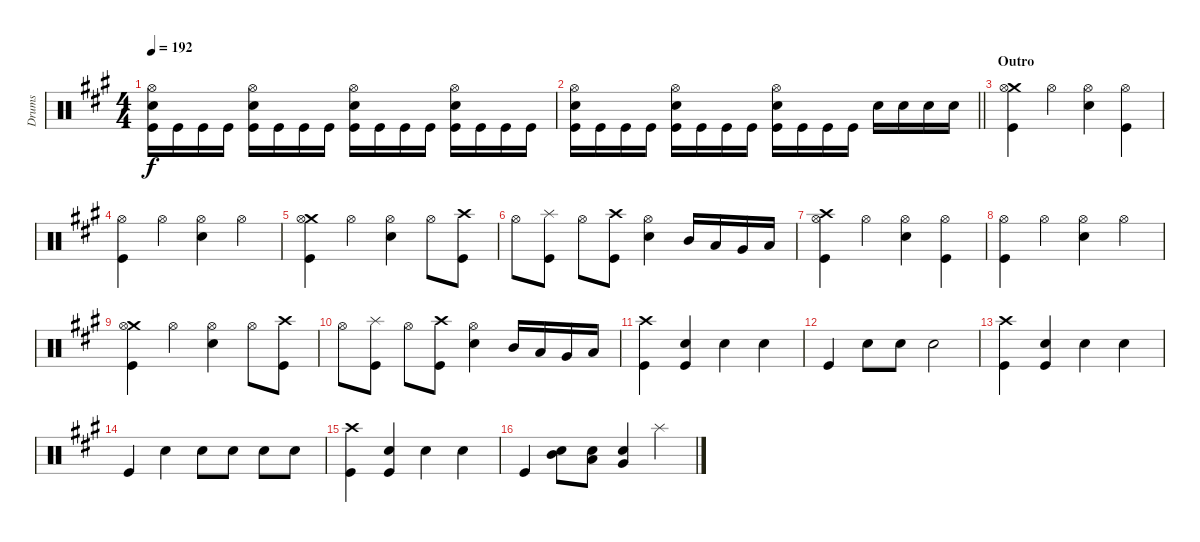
\track ("Drums" "Drums") {instrument percussion}
\staff {score}
\articulation defaults
\ts (4 4)
\tempo 192
\clef neutral
\ks f#minor
("Hi-Hat (open)" "Snare (hit) 2" "Kick (hit)").16{dy f} "Kick (hit)".16 "Kick (hit)".16 "Kick (hit)".16 ("Hi-Hat (open)" "Snare (hit) 2" "Kick (hit)").16 "Kick (hit)".16 "Kick (hit)".16 "Kick (hit)".16 ("Hi-Hat (open)" "Snare (hit) 2" "Kick (hit)").16 "Kick (hit)".16 "Kick (hit)".16 "Kick (hit)".16 ("Hi-Hat (open)" "Snare (hit) 2" "Kick (hit)").16 "Kick (hit)".16 "Kick (hit)".16 "Kick (hit)".16 |
\barLineRight lightlight
("Hi-Hat (open)" "Snare (hit) 2" "Kick (hit)").16 "Kick (hit)".16 "Kick (hit)".16 "Kick (hit)".16 ("Hi-Hat (open)" "Snare (hit) 2" "Kick (hit)").16 "Kick (hit)".16 "Kick (hit)".16 "Kick (hit)".16 ("Hi-Hat (open)" "Snare (hit) 2" "Kick (hit)").16 "Kick (hit)".16 "Kick (hit)".16 "Kick (hit)".16 "Snare (hit) 2".16 "Snare (hit) 2".16 "Snare (hit) 2".16 "Snare (hit) 2".16 |
\section ("" "Outro")
("Crash medium (hit)" "Hi-Hat (open)" "Kick (hit)").4 "Hi-Hat (open)".4 ("Hi-Hat (open)" "Snare (hit) 2").4 ("Hi-Hat (open)" "Kick (hit)").4 |
("Hi-Hat (open)" "Kick (hit)").4 "Hi-Hat (open)".4 ("Hi-Hat (open)" "Snare (hit) 2").4 "Hi-Hat (open)".4 |
("Crash medium (hit)" "Hi-Hat (open)" "Kick (hit)").4 "Hi-Hat (open)".4 ("Hi-Hat (open)" "Snare (hit) 2").4 "Hi-Hat (open)".8 ("Crash high (hit)" "Kick (hit)").8 |
"Hi-Hat (open)".8 ("Splash (hit)" "Kick (hit)").8 "Hi-Hat (open)".8 ("Crash high (hit)" "Kick (hit)").8 ("Hi-Hat (open)" "Snare (hit) 2").4 "Mid Tom (hit)".16 "Low Tom (hit)".16 "Very Low Tom (hit)".16 "Low Floor Tom (hit)".16 |
("Crash high (hit)" "Hi-Hat (open)" "Kick (hit)").4 "Hi-Hat (open)".4 ("Hi-Hat (open)" "Snare (hit) 2").4 ("Hi-Hat (open)" "Kick (hit)").4 |
("Hi-Hat (open)" "Kick (hit)").4 "Hi-Hat (open)".4 ("Hi-Hat (open)" "Snare (hit) 2").4 "Hi-Hat (open)".4 |
("Crash medium (hit)" "Hi-Hat (open)" "Kick (hit)").4 "Hi-Hat (open)".4 ("Hi-Hat (open)" "Snare (hit) 2").4 "Hi-Hat (open)".8 ("Crash high (hit)" "Kick (hit)").8 |
"Hi-Hat (open)".8 ("Splash (hit)" "Kick (hit)").8 "Hi-Hat (open)".8 ("Crash high (hit)" "Kick (hit)").8 ("Hi-Hat (open)" "Snare (hit) 2").4 "Mid Tom (hit)".16 "Low Tom (hit)".16 "Very Low Tom (hit)".16 "Low Floor Tom (hit)".16 |
("Crash high (hit)" "Kick (hit)").4 ("Snare (hit) 2"{tr (38 16)} "Kick (hit)").4 "Snare (hit) 2".4 "Snare (hit) 2".4 |
"Kick (hit)".4 "Snare (hit) 2".8 "Snare (hit) 2".8 "Snare (hit) 2".2 |
("Crash high (hit)" "Kick (hit)").4 ("Snare (hit) 2"{tr (38 16)} "Kick (hit)").4 "Snare (hit) 2".4 "Snare (hit) 2".4 |
"Kick (hit)".4 "Snare (hit) 2".4 "Snare (hit) 2".8 "Snare (hit) 2".8 "Snare (hit) 2".8 "Snare (hit) 2".8 |
("Crash high (hit)" "Kick (hit)").4 ("Snare (hit) 2"{tr (38 16)} "Kick (hit)").4 "Snare (hit) 2".4 "Snare (hit) 2".4 |
"Kick (hit)".4 ("Snare (hit) 2" "Mid Tom (hit)").8 ("Snare (hit) 2" "Low Tom (hit)").8 ("Snare (hit) 2" "Very Low Tom (hit)").4 "Splash (hit)".4
